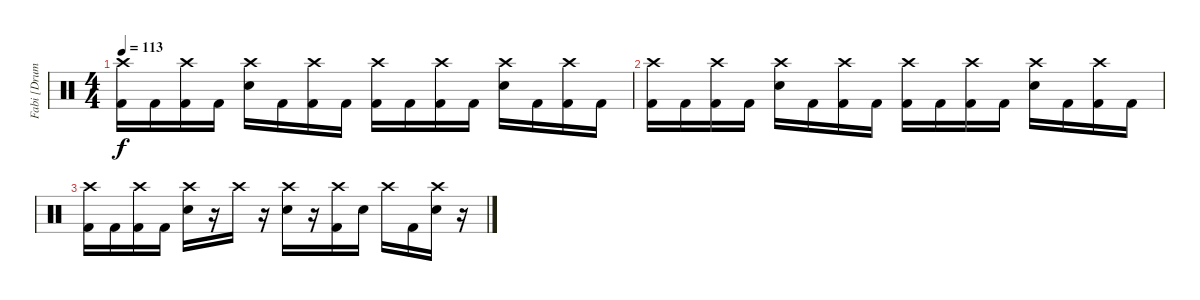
\track ("Fabi [Drums]" "Fabi [Drum") {instrument percussion}
\staff {score}
\articulation defaults
\ts (4 4)
\tempo 113
\clef neutral
\ks c
("Crash high (hit)" "Kick (hit) 2").16{dy f} "Kick (hit) 2".16 ("Crash high (hit)" "Kick (hit) 2").16 "Kick (hit) 2".16 ("Crash high (hit)" "Electric Snare (hit)").16 "Kick (hit) 2".16 ("Crash high (hit)" "Kick (hit) 2").16 "Kick (hit) 2".16 ("Crash high (hit)" "Kick (hit) 2").16 "Kick (hit) 2".16 ("Crash high (hit)" "Kick (hit) 2").16 "Kick (hit) 2".16 ("Crash high (hit)" "Electric Snare (hit)").16 "Kick (hit) 2".16 ("Crash high (hit)" "Kick (hit) 2").16 "Kick (hit) 2".16 |
("Crash high (hit)" "Kick (hit) 2").16 "Kick (hit) 2".16 ("Crash high (hit)" "Kick (hit) 2").16 "Kick (hit) 2".16 ("Crash high (hit)" "Electric Snare (hit)").16 "Kick (hit) 2".16 ("Crash high (hit)" "Kick (hit) 2").16 "Kick (hit) 2".16 ("Crash high (hit)" "Kick (hit) 2").16 "Kick (hit) 2".16 ("Crash high (hit)" "Kick (hit) 2").16 "Kick (hit) 2".16 ("Crash high (hit)" "Electric Snare (hit)").16 "Kick (hit) 2".16 ("Crash high (hit)" "Kick (hit) 2").16 "Kick (hit) 2".16 |
("Crash high (hit)" "Kick (hit) 2").16 "Kick (hit) 2".16 ("Crash high (hit)" "Kick (hit) 2").16 "Kick (hit) 2".16 ("Crash high (hit)" "Electric Snare (hit)").16 r.16 "Crash high (hit)".16 r.16 ("Crash high (hit)" "Electric Snare (hit)").16 r.16 ("Crash high (hit)" "Kick (hit) 2").16 "Electric Snare (hit)".16 "Crash high (hit)".16 "Kick (hit) 2".16 ("Crash high (hit)" "Electric Snare (hit)").16 r.16
